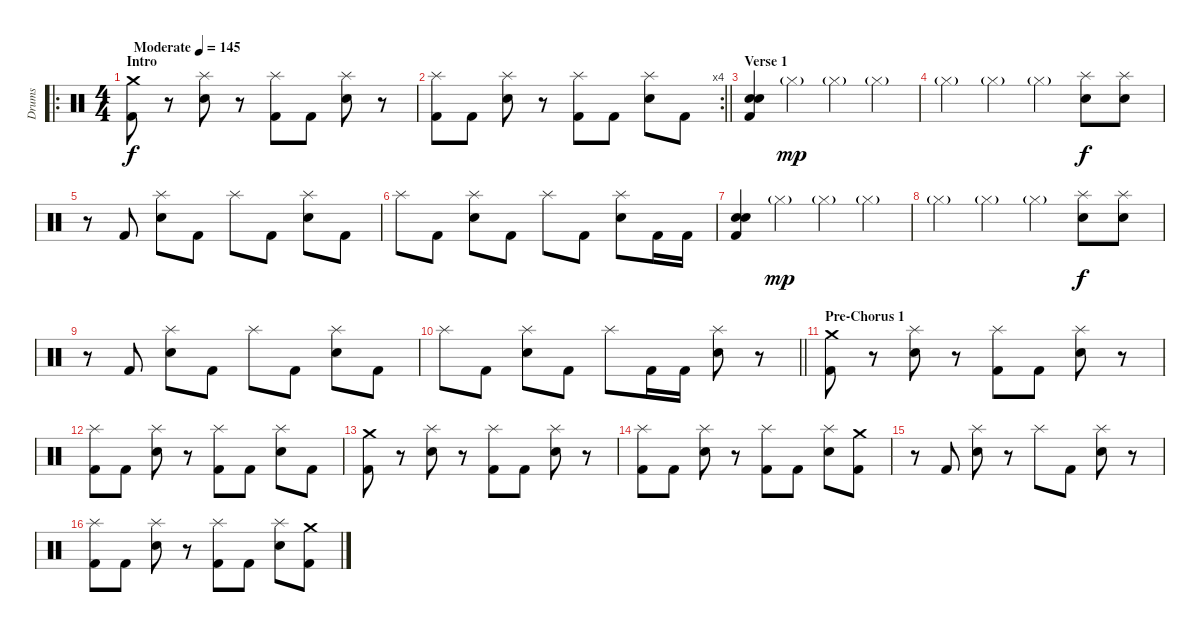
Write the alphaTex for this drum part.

\track ("Drums" "Drums") {instrument percussion}
\staff {score}
\articulation defaults
\ro
\ts (4 4)
\section ("" "Intro")
\tempo (145 "Moderate")
\clef neutral
\ks c
("Crash medium (hit)" "Kick (hit) 2").8{dy f} r.8 ("Splash (hit)" "Snare (hit) 2").8 r.8 ("Splash (hit)" "Kick (hit) 2").8 "Kick (hit) 2".8 ("Splash (hit)" "Snare (hit) 2").8 r.8 |
\rc 4
\barLineRight lightlight
("Splash (hit)" "Kick (hit) 2").8 "Kick (hit) 2".8 ("Splash (hit)" "Snare (hit) 2").8 r.8 ("Splash (hit)" "Kick (hit) 2").8 "Kick (hit) 2".8 ("Splash (hit)" "Snare (hit) 2").8 "Kick (hit) 2".8 |
\section ("" "Verse 1")
("Electric Snare (hit)" "Electric Snare (hit)" "Kick (hit) 2").4 "Hi-Hat (closed)"{g}.4{dy mp} "Hi-Hat (closed)"{g}.4 "Hi-Hat (closed)"{g}.4 |
"Hi-Hat (closed)"{g}.4 "Hi-Hat (closed)"{g}.4 "Hi-Hat (closed)"{g}.4 ("Splash (hit)" "Snare (hit) 2").8{dy f} ("Splash (hit)" "Snare (hit) 2").8 |
r.8 "Kick (hit) 2".8 ("Snare (hit) 2" "Splash (hit)").8 "Kick (hit) 2".8 "Splash (hit)".8 "Kick (hit) 2".8 ("Snare (hit) 2" "Splash (hit)").8 "Kick (hit) 2".8 |
"Splash (hit)".8 "Kick (hit) 2".8 ("Snare (hit) 2" "Splash (hit)").8 "Kick (hit) 2".8 "Splash (hit)".8 "Kick (hit) 2".8 ("Splash (hit)" "Snare (hit) 2").8 "Kick (hit) 2".16 "Kick (hit) 2".16 |
("Electric Snare (hit)" "Electric Snare (hit)" "Kick (hit) 2").4 "Hi-Hat (closed)"{g}.4{dy mp} "Hi-Hat (closed)"{g}.4 "Hi-Hat (closed)"{g}.4 |
"Hi-Hat (closed)"{g}.4 "Hi-Hat (closed)"{g}.4 "Hi-Hat (closed)"{g}.4 ("Splash (hit)" "Snare (hit) 2").8{dy f} ("Splash (hit)" "Snare (hit) 2").8 |
r.8 "Kick (hit) 2".8 ("Snare (hit) 2" "Splash (hit)").8 "Kick (hit) 2".8 "Splash (hit)".8 "Kick (hit) 2".8 ("Snare (hit) 2" "Splash (hit)").8 "Kick (hit) 2".8 |
\barLineRight lightlight "Splash (hit)".8 "Kick (hit) 2".8
("Snare (hit) 2" "Splash (hit)").8 "Kick (hit) 2".8 "Splash (hit)".8 "Kick (hit) 2".16 "Kick (hit) 2".16 ("Splash (hit)" "Snare (hit) 2").8 r.8 |
\section ("" "Pre-Chorus 1")
("Crash medium (hit)" "Kick (hit) 2").8 r.8 ("Splash (hit)" "Snare (hit) 2").8 r.8 ("Splash (hit)" "Kick (hit) 2").8 "Kick (hit) 2".8 ("Splash (hit)" "Snare (hit) 2").8 r.8 |
("Splash (hit)" "Kick (hit) 2").8 "Kick (hit) 2".8 ("Splash (hit)" "Snare (hit) 2").8 r.8 ("Splash (hit)" "Kick (hit) 2").8 "Kick (hit) 2".8 ("Splash (hit)" "Snare (hit) 2").8 "Kick (hit) 2".8 |
("Crash medium (hit)" "Kick (hit) 2").8 r.8 ("Splash (hit)" "Snare (hit) 2").8 r.8 ("Splash (hit)" "Kick (hit) 2").8 "Kick (hit) 2".8 ("Splash (hit)" "Snare (hit) 2").8 r.8 |
("Splash (hit)" "Kick (hit) 2").8 "Kick (hit) 2".8 ("Splash (hit)" "Snare (hit) 2").8 r.8 ("Splash (hit)" "Kick (hit) 2").8 "Kick (hit) 2".8 ("Splash (hit)" "Snare (hit) 2").8 ("Crash medium (hit)" "Kick (hit) 2").8 |
r.8 "Kick (hit) 2".8 ("Splash (hit)" "Snare (hit) 2").8 r.8 "Splash (hit)".8 "Kick (hit) 2".8 ("Splash (hit)" "Snare (hit) 2").8 r.8 |
("Splash (hit)" "Kick (hit) 2").8 "Kick (hit) 2".8 ("Splash (hit)" "Snare (hit) 2").8 r.8 ("Splash (hit)" "Kick (hit) 2").8 "Kick (hit) 2".8 ("Splash (hit)" "Snare (hit) 2").8 ("Crash medium (hit)" "Kick (hit) 2").8
